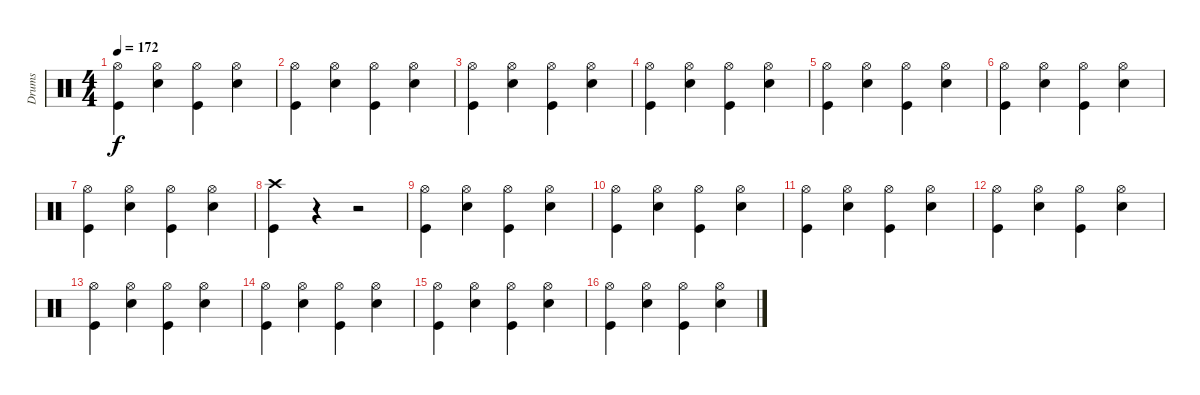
\track ("Drums" "Drums") {instrument percussion}
\staff {score}
\articulation defaults
\ts (4 4)
\tempo 172
\clef neutral
\ks c
("Kick (hit)" "Hi-Hat (open)").4{dy f} ("Snare (hit) 2" "Hi-Hat (open)").4 ("Kick (hit)" "Hi-Hat (open)").4 ("Snare (hit) 2" "Hi-Hat (open)").4 |
("Kick (hit)" "Hi-Hat (open)").4 ("Snare (hit) 2" "Hi-Hat (open)").4 ("Kick (hit)" "Hi-Hat (open)").4 ("Snare (hit) 2" "Hi-Hat (open)").4 |
("Kick (hit)" "Hi-Hat (open)").4 ("Snare (hit) 2" "Hi-Hat (open)").4 ("Kick (hit)" "Hi-Hat (open)").4 ("Snare (hit) 2" "Hi-Hat (open)").4 |
("Kick (hit)" "Hi-Hat (open)").4 ("Snare (hit) 2" "Hi-Hat (open)").4 ("Kick (hit)" "Hi-Hat (open)").4 ("Snare (hit) 2" "Hi-Hat (open)").4 |
("Kick (hit)" "Hi-Hat (open)").4 ("Snare (hit) 2" "Hi-Hat (open)").4 ("Kick (hit)" "Hi-Hat (open)").4 ("Snare (hit) 2" "Hi-Hat (open)").4 |
("Kick (hit)" "Hi-Hat (open)").4 ("Snare (hit) 2" "Hi-Hat (open)").4 ("Kick (hit)" "Hi-Hat (open)").4 ("Snare (hit) 2" "Hi-Hat (open)").4 |
("Kick (hit)" "Hi-Hat (open)").4 ("Snare (hit) 2" "Hi-Hat (open)").4 ("Kick (hit)" "Hi-Hat (open)").4 ("Snare (hit) 2" "Hi-Hat (open)").4 |
("Kick (hit)" "Crash high (hit)").4 r.4 r.2 |
("Kick (hit)" "Hi-Hat (open)").4 ("Snare (hit) 2" "Hi-Hat (open)").4 ("Kick (hit)" "Hi-Hat (open)").4 ("Snare (hit) 2" "Hi-Hat (open)").4 |
("Kick (hit)" "Hi-Hat (open)").4 ("Snare (hit) 2" "Hi-Hat (open)").4 ("Kick (hit)" "Hi-Hat (open)").4 ("Snare (hit) 2" "Hi-Hat (open)").4 |
("Kick (hit)" "Hi-Hat (open)").4 ("Snare (hit) 2" "Hi-Hat (open)").4 ("Kick (hit)" "Hi-Hat (open)").4 ("Snare (hit) 2" "Hi-Hat (open)").4 |
("Kick (hit)" "Hi-Hat (open)").4 ("Snare (hit) 2" "Hi-Hat (open)").4 ("Kick (hit)" "Hi-Hat (open)").4 ("Snare (hit) 2" "Hi-Hat (open)").4 |
("Kick (hit)" "Hi-Hat (open)").4 ("Snare (hit) 2" "Hi-Hat (open)").4 ("Kick (hit)" "Hi-Hat (open)").4 ("Snare (hit) 2" "Hi-Hat (open)").4 |
("Kick (hit)" "Hi-Hat (open)").4 ("Snare (hit) 2" "Hi-Hat (open)").4 ("Kick (hit)" "Hi-Hat (open)").4 ("Snare (hit) 2" "Hi-Hat (open)").4 |
("Kick (hit)" "Hi-Hat (open)").4 ("Snare (hit) 2" "Hi-Hat (open)").4 ("Kick (hit)" "Hi-Hat (open)").4 ("Snare (hit) 2" "Hi-Hat (open)").4 |
("Kick (hit)" "Hi-Hat (open)").4 ("Snare (hit) 2" "Hi-Hat (open)").4 ("Kick (hit)" "Hi-Hat (open)").4 ("Snare (hit) 2" "Hi-Hat (open)").4
